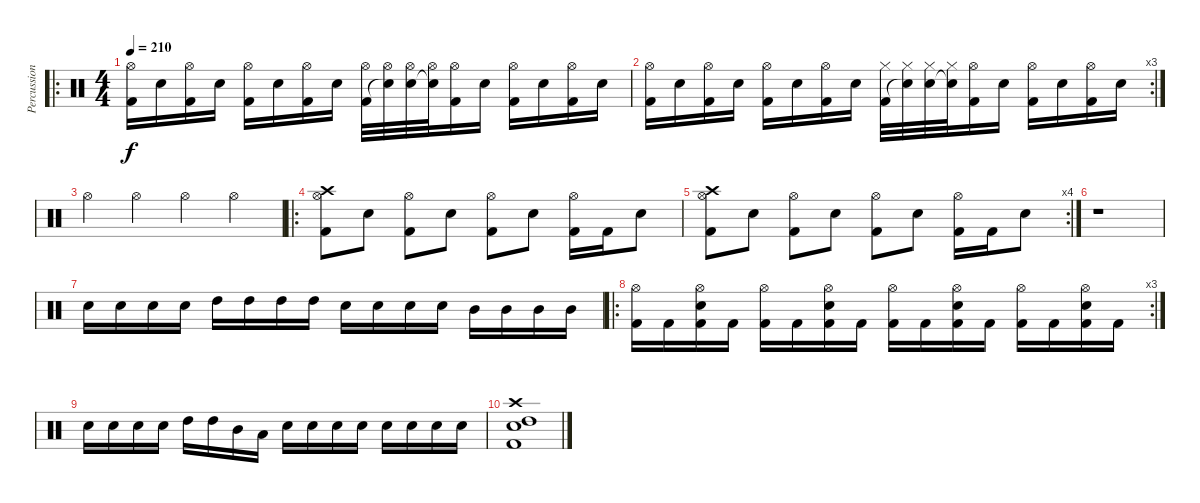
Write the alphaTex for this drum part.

\track ("Percussion" "Percussion") {instrument percussion}
\staff {score}
\articulation defaults
\ro
\ts (4 4)
\tempo 210
\clef neutral
\ks c
("Kick (hit) 2" "Hi-Hat (open)").16{dy f} "Electric Snare (hit)".16 ("Kick (hit) 2" "Hi-Hat (open)").16 "Electric Snare (hit)".16 ("Kick (hit) 2" "Hi-Hat (open)").16 "Electric Snare (hit)".16 ("Kick (hit) 2" "Hi-Hat (open)").16 "Electric Snare (hit)".16 ("Kick (hit) 2" "Hi-Hat (open)").32 ("Electric Snare (hit)"{t} "Hi-Hat (open)").32 ("Electric Snare (hit)" "Hi-Hat (open)").32 ("Electric Snare (hit)"{t} "Hi-Hat (open)").32 ("Kick (hit) 2" "Hi-Hat (open)").16 "Electric Snare (hit)".16 ("Kick (hit) 2" "Hi-Hat (open)").16 "Electric Snare (hit)".16 ("Kick (hit) 2" "Hi-Hat (open)").16 "Electric Snare (hit)".16 |
\rc 3
("Kick (hit) 2" "Hi-Hat (open)").16 "Electric Snare (hit)".16 ("Kick (hit) 2" "Hi-Hat (open)").16 "Electric Snare (hit)".16 ("Kick (hit) 2" "Hi-Hat (open)").16 "Electric Snare (hit)".16 ("Kick (hit) 2" "Hi-Hat (open)").16 "Electric Snare (hit)".16 ("Kick (hit) 2" "Hi-Hat (closed)").32 ("Electric Snare (hit)"{t} "Hi-Hat (closed)").32 ("Electric Snare (hit)" "Hi-Hat (closed)").32 ("Electric Snare (hit)"{t} "Hi-Hat (closed)").32 ("Kick (hit) 2" "Hi-Hat (open)").16 "Electric Snare (hit)".16 ("Kick (hit) 2" "Hi-Hat (open)").16 "Electric Snare (hit)".16 ("Kick (hit) 2" "Hi-Hat (open)").16 "Electric Snare (hit)".16 |
"Hi-Hat (open)".4 "Hi-Hat (open)".4 "Hi-Hat (open)".4 "Hi-Hat (open)".4 |
\ro
("Kick (hit) 2" "Hi-Hat (open)" "Crash high (hit)").8 "Electric Snare (hit)".8 ("Kick (hit) 2" "Hi-Hat (open)").8 "Electric Snare (hit)".8 ("Kick (hit) 2" "Hi-Hat (open)").8 "Electric Snare (hit)".8 ("Kick (hit) 2" "Hi-Hat (open)").16 "Kick (hit) 2".16 "Electric Snare (hit)".8 |
\rc 4
("Kick (hit) 2" "Hi-Hat (open)" "Crash high (hit)").8 "Electric Snare (hit)".8 ("Kick (hit) 2" "Hi-Hat (open)").8 "Electric Snare (hit)".8 ("Kick (hit) 2" "Hi-Hat (open)").8 "Electric Snare (hit)".8 ("Kick (hit) 2" "Hi-Hat (open)").16 "Kick (hit) 2".16 "Electric Snare (hit)".8 |
r.1 |
"Electric Snare (hit)".16 "Electric Snare (hit)".16 "Electric Snare (hit)".16 "Electric Snare (hit)".16 "High Tom (hit)".16 "High Tom (hit)".16 "High Tom (hit)".16 "High Tom (hit)".16 "Electric Snare (hit)".16 "Electric Snare (hit)".16 "Electric Snare (hit)".16 "Electric Snare (hit)".16 "Mid Tom (hit)".16 "Mid Tom (hit)".16 "Mid Tom (hit)".16 "Mid Tom (hit)".16 |
\ro
\rc 3
("Hi-Hat (open)" "Kick (hit) 2").16 "Kick (hit) 2".16 ("Electric Snare (hit)" "Hi-Hat (open)" "Kick (hit) 2").16 "Kick (hit) 2".16 ("Hi-Hat (open)" "Kick (hit) 2").16 "Kick (hit) 2".16 ("Electric Snare (hit)" "Hi-Hat (open)" "Kick (hit) 2").16 "Kick (hit) 2".16 ("Hi-Hat (open)" "Kick (hit) 2").16 "Kick (hit) 2".16 ("Electric Snare (hit)" "Hi-Hat (open)" "Kick (hit) 2").16 "Kick (hit) 2".16 ("Hi-Hat (open)" "Kick (hit) 2").16 "Kick (hit) 2".16 ("Electric Snare (hit)" "Hi-Hat (open)" "Kick (hit) 2").16 "Kick (hit) 2".16 |
"Electric Snare (hit)".16 "Electric Snare (hit)".16 "Electric Snare (hit)".16 "Electric Snare (hit)".16 "High Tom (hit)".16 "High Tom (hit)".16 "Mid Tom (hit)".16 "Low Tom (hit)".16 "Electric Snare (hit)".16 "Electric Snare (hit)".16 "Electric Snare (hit)".16 "Electric Snare (hit)".16 "Electric Snare (hit)".16 "Electric Snare (hit)".16 "Electric Snare (hit)".16 "Electric Snare (hit)".16 |
("Electric Snare (hit)" "Kick (hit) 2" "Crash high (hit)" "High Tom (hit)").1
